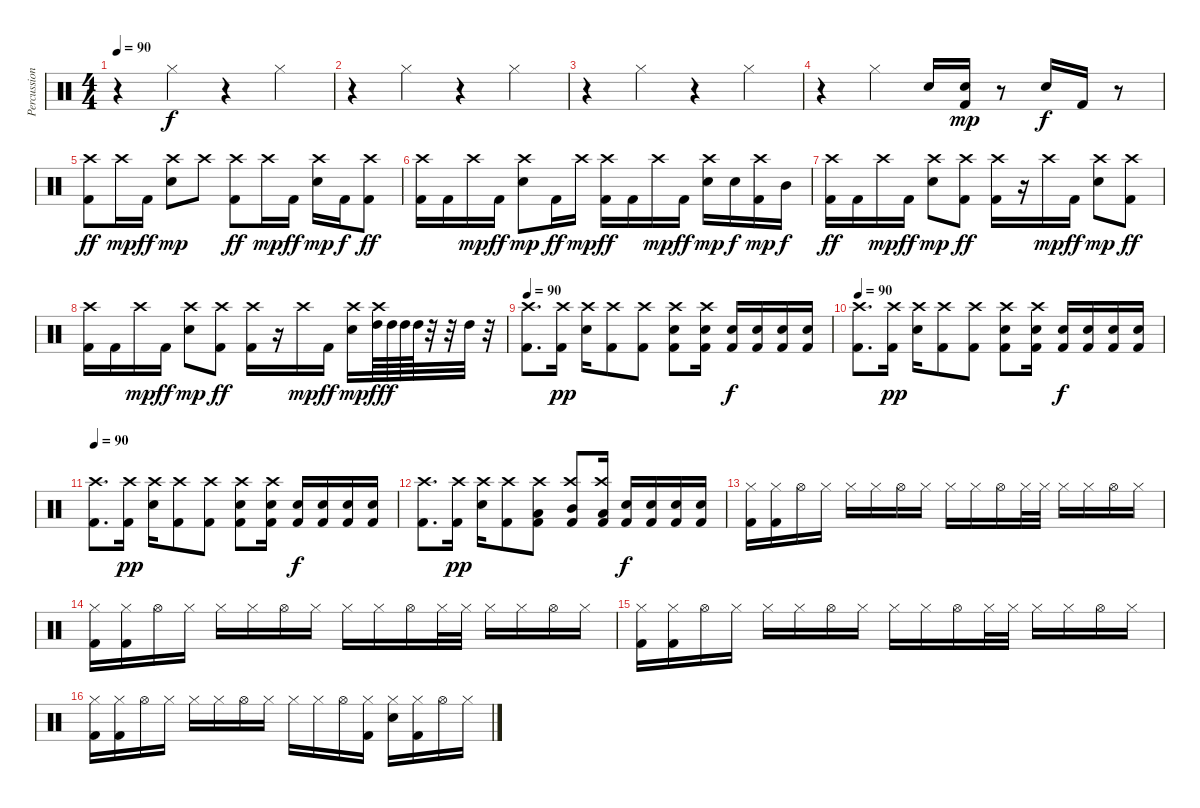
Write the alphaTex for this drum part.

\track ("Percussion" "Percussion") {instrument percussion}
\staff {score}
\articulation defaults
\ts (4 4)
\tempo 90
\clef neutral
\ks c
r.4{dy f} "Hi-Hat (closed)".4 r.4 "Hi-Hat (closed)".4 |
r.4 "Hi-Hat (closed)".4 r.4 "Hi-Hat (closed)".4 |
r.4 "Hi-Hat (closed)".4 r.4 "Hi-Hat (closed)".4 |
r.4 "Hi-Hat (closed)".4 "Electric Snare (hit)".16 ("Snare (hit) 2" "Kick (hit) 2").16{dy mp} r.8 "Electric Snare (hit)".16{dy f} "Kick (hit) 2".16 r.8 |
("Crash high (hit)" "Kick (hit) 2").8{dy ff} "Crash high (hit)".16{dy mp} "Kick (hit) 2".16{dy ff} ("Crash high (hit)" "Electric Snare (hit)").8{dy mp} "Crash high (hit)".8 ("Crash high (hit)" "Kick (hit) 2").8{dy ff} "Crash high (hit)".16{dy mp} "Kick (hit) 2".16{dy ff} ("Crash high (hit)" "Electric Snare (hit)").16{dy mp} "Kick (hit) 2".16{dy f} ("Crash high (hit)" "Kick (hit) 2").8{dy ff} |
("Crash high (hit)" "Kick (hit) 2").16 "Kick (hit) 2".16 "Crash high (hit)".16{dy mp} "Kick (hit) 2".16{dy ff} ("Crash high (hit)" "Electric Snare (hit)").8{dy mp} "Kick (hit) 2".16{dy ff} "Crash high (hit)".16{dy mp} ("Crash high (hit)" "Kick (hit) 2").16{dy ff} "Kick (hit) 2".16 "Crash high (hit)".16{dy mp} "Kick (hit) 2".16{dy ff} ("Crash high (hit)" "Electric Snare (hit)").16{dy mp} "Snare (hit) 2".16{dy f} ("Crash high (hit)" "Kick (hit) 2").16{dy mp} "Mid Tom (hit)".16{dy f} |
("Crash high (hit)" "Kick (hit) 2").16{dy ff} "Kick (hit) 2".16 "Crash high (hit)".16{dy mp} "Kick (hit) 2".16{dy ff} ("Crash high (hit)" "Electric Snare (hit)").8{dy mp} ("Crash high (hit)" "Kick (hit) 2").8{dy ff} ("Crash high (hit)" "Kick (hit) 2").16 r.16 "Crash high (hit)".16{dy mp} "Kick (hit) 2".16{dy ff} ("Crash high (hit)" "Electric Snare (hit)").8{dy mp} ("Crash high (hit)" "Kick (hit) 2").8{dy ff} |
("Crash high (hit)" "Kick (hit) 2").16 "Kick (hit) 2".16 "Crash high (hit)".16{dy mp} "Kick (hit) 2".16{dy ff} ("Crash high (hit)" "Electric Snare (hit)").8{dy mp} ("Crash high (hit)" "Kick (hit) 2").8{dy ff} ("Crash high (hit)" "Kick (hit) 2").16 r.16 "Crash high (hit)".16{dy mp} "Kick (hit) 2".16{dy ff} ("Crash high (hit)" "Electric Snare (hit)").16{dy mp} ("Crash high (hit)" "High Tom (hit)").64{dy ff} "High Tom (hit)".64{dy f} "High Tom (hit)".64 "High Tom (hit)".64 r.32 r.32 "High Tom (hit)".32 r.32 |
\tempo 90
("Crash high (hit)" "Kick (hit) 2").8{d} ("Crash high (hit)" "Kick (hit) 2").16{dy pp} ("Crash high (hit)" "Electric Snare (hit)").16 ("Crash high (hit)" "Kick (hit) 2").8 ("Crash high (hit)" "Kick (hit) 2").8 ("Crash high (hit)" "Snare (hit) 2" "Kick (hit) 2").8 ("Crash high (hit)" "Electric Snare (hit)" "Kick (hit) 2").16 ("Electric Snare (hit)" "Kick (hit) 2").16{dy f} ("Electric Snare (hit)" "Kick (hit) 2").16 ("Electric Snare (hit)" "Kick (hit) 2").16 ("Electric Snare (hit)" "Kick (hit) 2").16 |
\tempo 90
("Crash high (hit)" "Kick (hit) 2").8{d} ("Crash high (hit)" "Kick (hit) 2").16{dy pp} ("Crash high (hit)" "Electric Snare (hit)").16 ("Crash high (hit)" "Kick (hit) 2").8 ("Crash high (hit)" "Kick (hit) 2").8 ("Crash high (hit)" "Snare (hit) 2" "Kick (hit) 2").8 ("Crash high (hit)" "Electric Snare (hit)" "Kick (hit) 2").16 ("Electric Snare (hit)" "Kick (hit) 2").16{dy f} ("Electric Snare (hit)" "Kick (hit) 2").16 ("Electric Snare (hit)" "Kick (hit) 2").16 ("Electric Snare (hit)" "Kick (hit) 2").16 |
\tempo 90
("Crash high (hit)" "Kick (hit) 2").8{d} ("Crash high (hit)" "Kick (hit) 2").16{dy pp} ("Crash high (hit)" "Electric Snare (hit)").16 ("Crash high (hit)" "Kick (hit) 2").8 ("Crash high (hit)" "Kick (hit) 2").8 ("Crash high (hit)" "Snare (hit) 2" "Kick (hit) 2").8 ("Crash high (hit)" "Electric Snare (hit)" "Kick (hit) 2").16 ("Electric Snare (hit)" "Kick (hit) 2").16{dy f} ("Electric Snare (hit)" "Kick (hit) 2").16 ("Electric Snare (hit)" "Kick (hit) 2").16 ("Electric Snare (hit)" "Kick (hit) 2").16 |
("Crash high (hit)" "Kick (hit) 2").8{d} ("Crash high (hit)" "Kick (hit) 2").16{dy pp} ("Crash high (hit)" "Electric Snare (hit)").16 ("Crash high (hit)" "Kick (hit) 2").8 ("Crash high (hit)" "Low Tom (hit)" "Kick (hit) 2").8 ("Crash high (hit)" "Mid Tom (hit)" "Kick (hit) 2").8 ("Crash high (hit)" "Low Tom (hit)" "Kick (hit) 2").16 ("Electric Snare (hit)" "Kick (hit) 2").16{dy f} ("Electric Snare (hit)" "Kick (hit) 2").16 ("Electric Snare (hit)" "Kick (hit) 2").16 ("Electric Snare (hit)" "Kick (hit) 2").16 |
("Hi-Hat (closed)" "Kick (hit) 2").16 ("Hi-Hat (closed)" "Kick (hit) 2").16 "Hi-Hat (open)".16 "Hi-Hat (closed)".16 "Hi-Hat (closed)".16 "Hi-Hat (closed)".16 "Hi-Hat (open)".16 "Hi-Hat (closed)".16 "Hi-Hat (closed)".16 "Hi-Hat (closed)".16 "Hi-Hat (open)".16 "Hi-Hat (closed)".32 "Hi-Hat (closed)".32 "Hi-Hat (closed)".16 "Hi-Hat (closed)".16 "Hi-Hat (open)".16 "Hi-Hat (closed)".16 |
("Hi-Hat (closed)" "Kick (hit) 2").16 ("Hi-Hat (closed)" "Kick (hit) 2").16 "Hi-Hat (open)".16 "Hi-Hat (closed)".16 "Hi-Hat (closed)".16 "Hi-Hat (closed)".16 "Hi-Hat (open)".16 "Hi-Hat (closed)".16 "Hi-Hat (closed)".16 "Hi-Hat (closed)".16 "Hi-Hat (open)".16 "Hi-Hat (closed)".32 "Hi-Hat (closed)".32 "Hi-Hat (closed)".16 "Hi-Hat (closed)".16 "Hi-Hat (open)".16 "Hi-Hat (closed)".16 |
("Hi-Hat (closed)" "Kick (hit) 2").16 ("Hi-Hat (closed)" "Kick (hit) 2").16 "Hi-Hat (open)".16 "Hi-Hat (closed)".16 "Hi-Hat (closed)".16 "Hi-Hat (closed)".16 "Hi-Hat (open)".16 "Hi-Hat (closed)".16 "Hi-Hat (closed)".16 "Hi-Hat (closed)".16 "Hi-Hat (open)".16 "Hi-Hat (closed)".32 "Hi-Hat (closed)".32 "Hi-Hat (closed)".16 "Hi-Hat (closed)".16 "Hi-Hat (open)".16 "Hi-Hat (closed)".16 |
("Hi-Hat (closed)" "Kick (hit) 2").16 ("Hi-Hat (closed)" "Kick (hit) 2").16 "Hi-Hat (open)".16 "Hi-Hat (closed)".16 "Hi-Hat (closed)".16 "Hi-Hat (closed)".16 "Hi-Hat (open)".16 "Hi-Hat (closed)".16 "Hi-Hat (closed)".16 "Hi-Hat (closed)".16 "Hi-Hat (open)".16 ("Hi-Hat (closed)" "Kick (hit) 2").16 ("Hi-Hat (closed)" "Electric Snare (hit)").16 ("Hi-Hat (closed)" "Kick (hit) 2").16 "Hi-Hat (open)".16 "Hi-Hat (closed)".16
